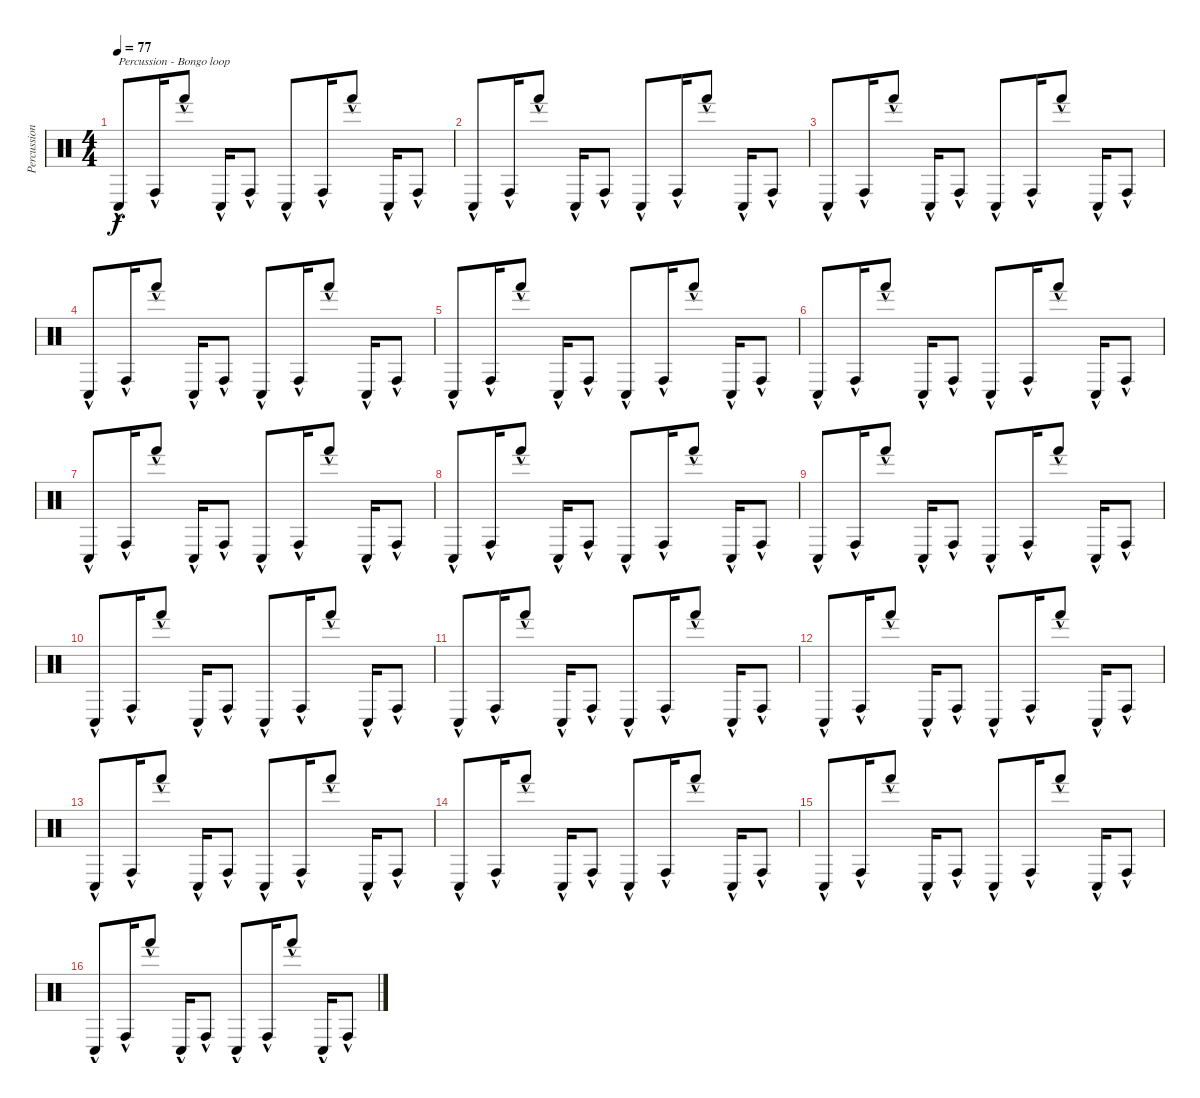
\track ("Percussion" "Percussion") {instrument percussion}
\staff {score}
\articulation defaults
\ts (4 4)
\tempo 77
\clef neutral
\ks c "Conga low (hit)"{hac}.8{txt "Percussion - Bongo loop" dy f} "Conga high (hit)"{hac}.16 "Hand (hit)"{hac}.8 "Conga low (hit)"{hac}.16 "Conga high (hit)"{hac}.8 "Conga low (hit)"{hac}.8 "Conga high (hit)"{hac}.16 "Hand (hit)"{hac}.8 "Conga low (hit)"{hac}.16 "Conga high (hit)"{hac}.8
|
"Conga low (hit)"{hac}.8 "Conga high (hit)"{hac}.16 "Hand (hit)"{hac}.8 "Conga low (hit)"{hac}.16 "Conga high (hit)"{hac}.8 "Conga low (hit)"{hac}.8 "Conga high (hit)"{hac}.16 "Hand (hit)"{hac}.8 "Conga low (hit)"{hac}.16 "Conga high (hit)"{hac}.8 |
"Conga low (hit)"{hac}.8 "Conga high (hit)"{hac}.16 "Hand (hit)"{hac}.8 "Conga low (hit)"{hac}.16 "Conga high (hit)"{hac}.8 "Conga low (hit)"{hac}.8 "Conga high (hit)"{hac}.16 "Hand (hit)"{hac}.8 "Conga low (hit)"{hac}.16 "Conga high (hit)"{hac}.8 |
"Conga low (hit)"{hac}.8 "Conga high (hit)"{hac}.16 "Hand (hit)"{hac}.8 "Conga low (hit)"{hac}.16 "Conga high (hit)"{hac}.8 "Conga low (hit)"{hac}.8 "Conga high (hit)"{hac}.16 "Hand (hit)"{hac}.8 "Conga low (hit)"{hac}.16 "Conga high (hit)"{hac}.8 |
"Conga low (hit)"{hac}.8 "Conga high (hit)"{hac}.16 "Hand (hit)"{hac}.8 "Conga low (hit)"{hac}.16 "Conga high (hit)"{hac}.8 "Conga low (hit)"{hac}.8 "Conga high (hit)"{hac}.16 "Hand (hit)"{hac}.8 "Conga low (hit)"{hac}.16 "Conga high (hit)"{hac}.8 |
"Conga low (hit)"{hac}.8 "Conga high (hit)"{hac}.16 "Hand (hit)"{hac}.8 "Conga low (hit)"{hac}.16 "Conga high (hit)"{hac}.8 "Conga low (hit)"{hac}.8 "Conga high (hit)"{hac}.16 "Hand (hit)"{hac}.8 "Conga low (hit)"{hac}.16 "Conga high (hit)"{hac}.8 |
"Conga low (hit)"{hac}.8 "Conga high (hit)"{hac}.16 "Hand (hit)"{hac}.8 "Conga low (hit)"{hac}.16 "Conga high (hit)"{hac}.8 "Conga low (hit)"{hac}.8 "Conga high (hit)"{hac}.16 "Hand (hit)"{hac}.8 "Conga low (hit)"{hac}.16 "Conga high (hit)"{hac}.8 |
"Conga low (hit)"{hac}.8 "Conga high (hit)"{hac}.16 "Hand (hit)"{hac}.8 "Conga low (hit)"{hac}.16 "Conga high (hit)"{hac}.8 "Conga low (hit)"{hac}.8 "Conga high (hit)"{hac}.16 "Hand (hit)"{hac}.8 "Conga low (hit)"{hac}.16 "Conga high (hit)"{hac}.8 |
"Conga low (hit)"{hac}.8 "Conga high (hit)"{hac}.16 "Hand (hit)"{hac}.8 "Conga low (hit)"{hac}.16 "Conga high (hit)"{hac}.8 "Conga low (hit)"{hac}.8 "Conga high (hit)"{hac}.16 "Hand (hit)"{hac}.8 "Conga low (hit)"{hac}.16 "Conga high (hit)"{hac}.8 |
"Conga low (hit)"{hac}.8 "Conga high (hit)"{hac}.16 "Hand (hit)"{hac}.8 "Conga low (hit)"{hac}.16 "Conga high (hit)"{hac}.8 "Conga low (hit)"{hac}.8 "Conga high (hit)"{hac}.16 "Hand (hit)"{hac}.8 "Conga low (hit)"{hac}.16 "Conga high (hit)"{hac}.8 |
"Conga low (hit)"{hac}.8 "Conga high (hit)"{hac}.16 "Hand (hit)"{hac}.8 "Conga low (hit)"{hac}.16 "Conga high (hit)"{hac}.8 "Conga low (hit)"{hac}.8 "Conga high (hit)"{hac}.16 "Hand (hit)"{hac}.8 "Conga low (hit)"{hac}.16 "Conga high (hit)"{hac}.8 |
"Conga low (hit)"{hac}.8 "Conga high (hit)"{hac}.16 "Hand (hit)"{hac}.8 "Conga low (hit)"{hac}.16 "Conga high (hit)"{hac}.8 "Conga low (hit)"{hac}.8 "Conga high (hit)"{hac}.16 "Hand (hit)"{hac}.8 "Conga low (hit)"{hac}.16 "Conga high (hit)"{hac}.8 |
"Conga low (hit)"{hac}.8 "Conga high (hit)"{hac}.16 "Hand (hit)"{hac}.8 "Conga low (hit)"{hac}.16 "Conga high (hit)"{hac}.8 "Conga low (hit)"{hac}.8 "Conga high (hit)"{hac}.16 "Hand (hit)"{hac}.8 "Conga low (hit)"{hac}.16 "Conga high (hit)"{hac}.8 |
"Conga low (hit)"{hac}.8 "Conga high (hit)"{hac}.16 "Hand (hit)"{hac}.8 "Conga low (hit)"{hac}.16 "Conga high (hit)"{hac}.8 "Conga low (hit)"{hac}.8 "Conga high (hit)"{hac}.16 "Hand (hit)"{hac}.8 "Conga low (hit)"{hac}.16 "Conga high (hit)"{hac}.8 |
"Conga low (hit)"{hac}.8 "Conga high (hit)"{hac}.16 "Hand (hit)"{hac}.8 "Conga low (hit)"{hac}.16 "Conga high (hit)"{hac}.8 "Conga low (hit)"{hac}.8 "Conga high (hit)"{hac}.16 "Hand (hit)"{hac}.8 "Conga low (hit)"{hac}.16 "Conga high (hit)"{hac}.8 |
"Conga low (hit)"{hac}.8 "Conga high (hit)"{hac}.16 "Hand (hit)"{hac}.8 "Conga low (hit)"{hac}.16 "Conga high (hit)"{hac}.8 "Conga low (hit)"{hac}.8 "Conga high (hit)"{hac}.16 "Hand (hit)"{hac}.8 "Conga low (hit)"{hac}.16 "Conga high (hit)"{hac}.8
